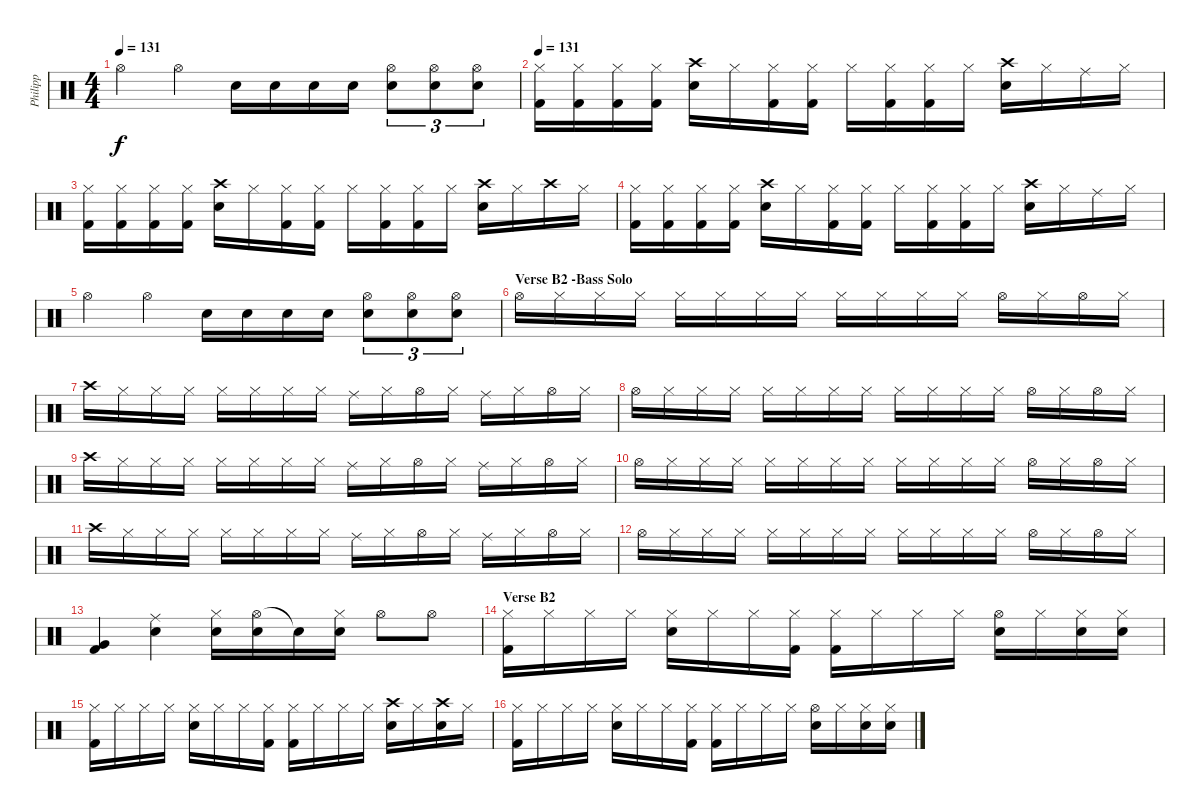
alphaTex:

\track ("Philipp" "Philipp") {instrument percussion}
\staff {score}
\articulation defaults
\ts (4 4)
\tempo 131
\clef neutral
\ks c "Hi-Hat (open)".4{dy f} "Hi-Hat (open)".4 "Electric Snare (hit)".16 "Electric Snare (hit)".16 "Electric Snare (hit)".16 "Electric Snare (hit)".16
("Hi-Hat (open)" "Electric Snare (hit)").8{tu (3 2)} ("Hi-Hat (open)" "Electric Snare (hit)").8{tu (3 2)} ("Hi-Hat (open)" "Electric Snare (hit)").8{tu (3 2)} |
\tempo 131
("Hi-Hat (closed)" "Kick (hit) 2").16 ("Hi-Hat (closed)" "Kick (hit) 2").16 ("Hi-Hat (closed)" "Kick (hit) 2").16 ("Hi-Hat (closed)" "Kick (hit) 2").16 ("Crash high (hit)" "Electric Snare (hit)").16 "Hi-Hat (closed)".16 ("Hi-Hat (closed)" "Kick (hit) 2").16 ("Hi-Hat (closed)" "Kick (hit) 2").16 "Hi-Hat (closed)".16 ("Hi-Hat (closed)" "Kick (hit) 2").16 ("Hi-Hat (closed)" "Kick (hit) 2").16 "Hi-Hat (closed)".16 ("Crash high (hit)" "Electric Snare (hit)").16 "Hi-Hat (closed)".16 "Ride (middle)".16 "Hi-Hat (closed)".16 |
("Hi-Hat (closed)" "Kick (hit) 2").16 ("Hi-Hat (closed)" "Kick (hit) 2").16 ("Hi-Hat (closed)" "Kick (hit) 2").16 ("Hi-Hat (closed)" "Kick (hit) 2").16 ("Crash high (hit)" "Electric Snare (hit)").16 "Hi-Hat (closed)".16 ("Hi-Hat (closed)" "Kick (hit) 2").16 ("Hi-Hat (closed)" "Kick (hit) 2").16 "Hi-Hat (closed)".16 ("Hi-Hat (closed)" "Kick (hit) 2").16 ("Hi-Hat (closed)" "Kick (hit) 2").16 "Hi-Hat (closed)".16 ("Crash high (hit)" "Electric Snare (hit)").16 "Hi-Hat (closed)".16 "Crash high (hit)".16 "Hi-Hat (closed)".16 |
("Hi-Hat (closed)" "Kick (hit) 2").16 ("Hi-Hat (closed)" "Kick (hit) 2").16 ("Hi-Hat (closed)" "Kick (hit) 2").16 ("Hi-Hat (closed)" "Kick (hit) 2").16 ("Crash high (hit)" "Electric Snare (hit)").16 "Hi-Hat (closed)".16 ("Hi-Hat (closed)" "Kick (hit) 2").16 ("Hi-Hat (closed)" "Kick (hit) 2").16 "Hi-Hat (closed)".16 ("Hi-Hat (closed)" "Kick (hit) 2").16 ("Hi-Hat (closed)" "Kick (hit) 2").16 "Hi-Hat (closed)".16 ("Crash high (hit)" "Electric Snare (hit)").16 "Hi-Hat (closed)".16 "Ride (middle)".16 "Hi-Hat (closed)".16 |
"Hi-Hat (open)".4 "Hi-Hat (open)".4 "Electric Snare (hit)".16 "Electric Snare (hit)".16 "Electric Snare (hit)".16 "Electric Snare (hit)".16 ("Hi-Hat (open)" "Electric Snare (hit)").8{tu (3 2)} ("Hi-Hat (open)" "Electric Snare (hit)").8{tu (3 2)} ("Hi-Hat (open)" "Electric Snare (hit)").8{tu (3 2)} |
\section ("" "Verse B2 -Bass Solo")
"Hi-Hat (open)".16 "Hi-Hat (closed)".16 "Hi-Hat (closed)".16 "Hi-Hat (closed)".16 "Hi-Hat (closed)".16 "Hi-Hat (closed)".16 "Hi-Hat (closed)".16 "Hi-Hat (closed)".16 "Hi-Hat (closed)".16 "Hi-Hat (closed)".16 "Hi-Hat (closed)".16 "Hi-Hat (closed)".16 "Hi-Hat (open)".16 "Hi-Hat (closed)".16 "Hi-Hat (open)".16 "Hi-Hat (closed)".16 |
"Crash high (hit)".16 "Hi-Hat (closed)".16 "Hi-Hat (closed)".16 "Hi-Hat (closed)".16 "Hi-Hat (closed)".16 "Hi-Hat (closed)".16 "Hi-Hat (closed)".16 "Hi-Hat (closed)".16 "Ride (middle)".16 "Hi-Hat (closed)".16 "Hi-Hat (open)".16 "Hi-Hat (closed)".16 "Ride (middle)".16 "Hi-Hat (closed)".16 "Hi-Hat (open)".16 "Hi-Hat (closed)".16 |
"Hi-Hat (open)".16 "Hi-Hat (closed)".16 "Hi-Hat (closed)".16 "Hi-Hat (closed)".16 "Hi-Hat (closed)".16 "Hi-Hat (closed)".16 "Hi-Hat (closed)".16 "Hi-Hat (closed)".16 "Hi-Hat (closed)".16 "Hi-Hat (closed)".16 "Hi-Hat (closed)".16 "Hi-Hat (closed)".16 "Hi-Hat (open)".16 "Hi-Hat (closed)".16 "Hi-Hat (open)".16 "Hi-Hat (closed)".16 |
"Crash high (hit)".16 "Hi-Hat (closed)".16 "Hi-Hat (closed)".16 "Hi-Hat (closed)".16 "Hi-Hat (closed)".16 "Hi-Hat (closed)".16 "Hi-Hat (closed)".16 "Hi-Hat (closed)".16 "Ride (middle)".16 "Hi-Hat (closed)".16 "Hi-Hat (open)".16 "Hi-Hat (closed)".16 "Ride (middle)".16 "Hi-Hat (closed)".16 "Hi-Hat (open)".16 "Hi-Hat (closed)".16 |
"Hi-Hat (open)".16 "Hi-Hat (closed)".16 "Hi-Hat (closed)".16 "Hi-Hat (closed)".16 "Hi-Hat (closed)".16 "Hi-Hat (closed)".16 "Hi-Hat (closed)".16 "Hi-Hat (closed)".16 "Hi-Hat (closed)".16 "Hi-Hat (closed)".16 "Hi-Hat (closed)".16 "Hi-Hat (closed)".16 "Hi-Hat (open)".16 "Hi-Hat (closed)".16 "Hi-Hat (open)".16 "Hi-Hat (closed)".16 |
"Crash high (hit)".16 "Hi-Hat (closed)".16 "Hi-Hat (closed)".16 "Hi-Hat (closed)".16 "Hi-Hat (closed)".16 "Hi-Hat (closed)".16 "Hi-Hat (closed)".16 "Hi-Hat (closed)".16 "Ride (middle)".16 "Hi-Hat (closed)".16 "Hi-Hat (open)".16 "Hi-Hat (closed)".16 "Ride (middle)".16 "Hi-Hat (closed)".16 "Hi-Hat (open)".16 "Hi-Hat (closed)".16 |
"Hi-Hat (open)".16 "Hi-Hat (closed)".16 "Hi-Hat (closed)".16 "Hi-Hat (closed)".16 "Hi-Hat (closed)".16 "Hi-Hat (closed)".16 "Hi-Hat (closed)".16 "Hi-Hat (closed)".16 "Hi-Hat (closed)".16 "Hi-Hat (closed)".16 "Hi-Hat (closed)".16 "Hi-Hat (closed)".16 "Hi-Hat (open)".16 "Hi-Hat (closed)".16 "Hi-Hat (open)".16 "Hi-Hat (closed)".16 |
("Very Low Tom (hit)" "Kick (hit) 2").4 ("Ride (middle)" "Electric Snare (hit)").4 ("Hi-Hat (closed)" "Electric Snare (hit)").16 ("Hi-Hat (open)" "Electric Snare (hit)").16 "Snare (hit)"{t}.16 ("Hi-Hat (closed)" "Electric Snare (hit)").16 "Hi-Hat (open)".8 "Hi-Hat (open)".8 |
\section ("" "Verse B2")
("Hi-Hat (closed)" "Kick (hit) 2").16 "Hi-Hat (closed)".16 "Hi-Hat (closed)".16 "Hi-Hat (closed)".16 ("Hi-Hat (closed)" "Electric Snare (hit)").16 "Hi-Hat (closed)".16 "Hi-Hat (closed)".16 ("Hi-Hat (closed)" "Kick (hit) 2").16 ("Hi-Hat (closed)" "Kick (hit) 2").16 "Hi-Hat (closed)".16 "Hi-Hat (closed)".16 "Hi-Hat (closed)".16 ("Hi-Hat (open)" "Electric Snare (hit)").16 "Hi-Hat (closed)".16 ("Hi-Hat (closed)" "Electric Snare (hit)").16 ("Hi-Hat (closed)" "Electric Snare (hit)").16 |
("Hi-Hat (closed)" "Kick (hit) 2").16 "Hi-Hat (closed)".16 "Hi-Hat (closed)".16 "Hi-Hat (closed)".16 ("Hi-Hat (closed)" "Electric Snare (hit)").16 "Hi-Hat (closed)".16 "Hi-Hat (closed)".16 ("Hi-Hat (closed)" "Kick (hit) 2").16 ("Hi-Hat (closed)" "Kick (hit) 2").16 "Hi-Hat (closed)".16 "Hi-Hat (closed)".16 "Hi-Hat (closed)".16 ("Crash high (hit)" "Electric Snare (hit)").16 "Hi-Hat (closed)".16 ("Crash high (hit)" "Electric Snare (hit)").16 "Hi-Hat (closed)".16 |
("Hi-Hat (closed)" "Kick (hit) 2").16 "Hi-Hat (closed)".16 "Hi-Hat (closed)".16 "Hi-Hat (closed)".16 ("Hi-Hat (closed)" "Electric Snare (hit)").16 "Hi-Hat (closed)".16 "Hi-Hat (closed)".16 ("Hi-Hat (closed)" "Kick (hit) 2").16 ("Hi-Hat (closed)" "Kick (hit) 2").16 "Hi-Hat (closed)".16 "Hi-Hat (closed)".16 "Hi-Hat (closed)".16 ("Hi-Hat (open)" "Electric Snare (hit)").16 "Hi-Hat (closed)".16 ("Hi-Hat (closed)" "Electric Snare (hit)").16 ("Hi-Hat (closed)" "Electric Snare (hit)").16
